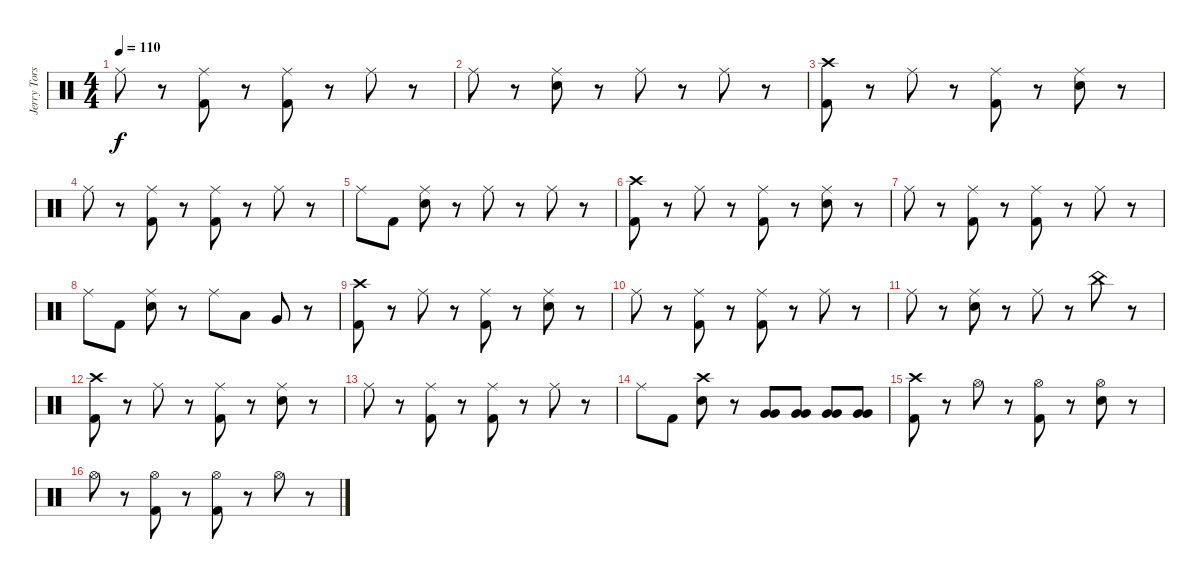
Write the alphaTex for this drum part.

\track ("Jerry Torstensson" "Jerry Tors") {instrument percussion}
\staff {score}
\articulation defaults
\ts (4 4)
\tempo 110
\clef neutral
\ks c "Ride (middle)".8{dy f}
r.8 ("Ride (middle)" "Kick (hit) 2").8 r.8 ("Ride (middle)" "Kick (hit) 2").8 r.8 "Ride (middle)".8 r.8 |
"Ride (middle)".8 r.8 ("Ride (middle)" "Electric Snare (hit)").8 r.8 "Ride (middle)".8 r.8 "Ride (middle)".8 r.8 |
("Crash high (hit)" "Kick (hit) 2").8 r.8 "Ride (middle)".8 r.8 ("Ride (middle)" "Kick (hit) 2").8 r.8 ("Ride (middle)" "Electric Snare (hit)").8 r.8 |
"Ride (middle)".8 r.8 ("Ride (middle)" "Kick (hit) 2").8 r.8 ("Ride (middle)" "Kick (hit) 2").8 r.8 "Ride (middle)".8 r.8 |
"Ride (middle)".8 "Kick (hit) 2".8 ("Ride (middle)" "Electric Snare (hit)").8 r.8 "Ride (middle)".8 r.8 "Ride (middle)".8 r.8 |
("Crash high (hit)" "Kick (hit) 2").8 r.8 "Ride (middle)".8 r.8 ("Ride (middle)" "Kick (hit) 2").8 r.8 ("Ride (middle)" "Electric Snare (hit)").8 r.8 |
"Ride (middle)".8 r.8 ("Ride (middle)" "Kick (hit) 2").8 r.8 ("Ride (middle)" "Kick (hit) 2").8 r.8 "Ride (middle)".8 r.8 |
"Ride (middle)".8 "Kick (hit) 2".8 ("Ride (middle)" "Electric Snare (hit)").8 r.8 "Ride (middle)".8 "Low Tom (hit)".8 "Very Low Tom (hit)".8 r.8 |
("Crash high (hit)" "Kick (hit) 2").8 r.8 "Ride (middle)".8 r.8 ("Ride (middle)" "Kick (hit) 2").8 r.8 ("Ride (middle)" "Electric Snare (hit)").8 r.8 |
"Ride (middle)".8 r.8 ("Ride (middle)" "Kick (hit) 2").8 r.8 ("Ride (middle)" "Kick (hit) 2").8 r.8 "Ride (middle)".8 r.8 |
"Ride (middle)".8 r.8 ("Ride (middle)" "Electric Snare (hit)").8 r.8 "Ride (middle)".8 r.8 "China (hit)".8 r.8 |
("Crash high (hit)" "Kick (hit) 2").8 r.8 "Ride (middle)".8 r.8 ("Ride (middle)" "Kick (hit) 2").8 r.8 ("Ride (middle)" "Electric Snare (hit)").8 r.8 |
"Ride (middle)".8 r.8 ("Ride (middle)" "Kick (hit) 2").8 r.8 ("Ride (middle)" "Kick (hit) 2").8 r.8 "Ride (middle)".8 r.8 |
"Ride (middle)".8 "Kick (hit) 2".8 ("Crash high (hit)" "Electric Snare (hit)").8 r.8 ("Very Low Tom (hit)" "Very Low Tom (hit)").8 ("Very Low Tom (hit)" "Very Low Tom (hit)").8 ("Very Low Tom (hit)" "Very Low Tom (hit)").8 ("Very Low Tom (hit)" "Very Low Tom (hit)").8 |
("Crash high (hit)" "Kick (hit) 2").8 r.8 "Hi-Hat (open)".8 r.8 ("Hi-Hat (open)" "Kick (hit) 2").8 r.8 ("Hi-Hat (open)" "Electric Snare (hit)").8 r.8 |
"Hi-Hat (open)".8 r.8 ("Hi-Hat (open)" "Kick (hit) 2").8 r.8 ("Hi-Hat (open)" "Kick (hit) 2").8 r.8 "Hi-Hat (open)".8 r.8
